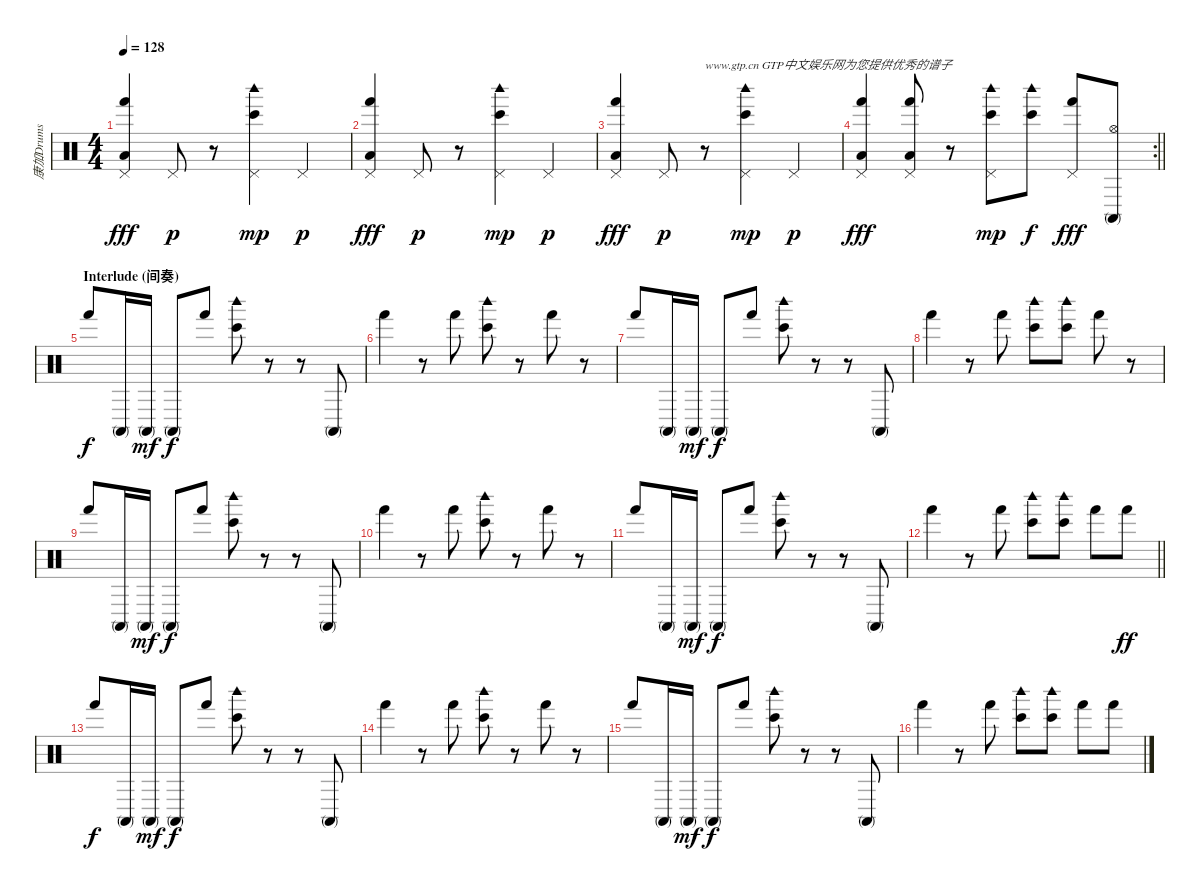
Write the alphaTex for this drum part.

\track ("康加Drums" "康加Drums") {instrument percussion}
\staff {score}
\articulation defaults
\ts (4 4)
\tempo 128
\clef neutral
\ks c
("Pedal Hi-Hat (hit)" "Hand (hit)" "Low Floor Tom (hit)").4{dy fff} "Pedal Hi-Hat (hit)".8{dy p} r.8 ("Bongo High (hit)" "Woodblock high (hit)" "Pedal Hi-Hat (hit)").4{dy mp} "Pedal Hi-Hat (hit)".4{dy p} |
("Pedal Hi-Hat (hit)" "Hand (hit)" "Low Floor Tom (hit)").4{dy fff} "Pedal Hi-Hat (hit)".8{dy p} r.8 ("Bongo High (hit)" "Woodblock high (hit)" "Pedal Hi-Hat (hit)").4{dy mp} "Pedal Hi-Hat (hit)".4{dy p} |
("Pedal Hi-Hat (hit)" "Hand (hit)" "Low Floor Tom (hit)").4{dy fff} "Pedal Hi-Hat (hit)".8{dy p} r.8{txt "www.gtp.cn GTP中文娱乐网为您提供优秀的谱子"} ("Bongo High (hit)" "Woodblock high (hit)" "Pedal Hi-Hat (hit)").4{dy mp} "Pedal Hi-Hat (hit)".4{dy p} |
\rc 2
\barLineRight lightlight
("Pedal Hi-Hat (hit)" "Hand (hit)" "Low Floor Tom (hit)").4{dy fff} ("Pedal Hi-Hat (hit)" "Hand (hit)" "Low Floor Tom (hit)").8 r.8 ("Bongo High (hit)" "Woodblock high (hit)" "Pedal Hi-Hat (hit)").8{dy mp} ("Bongo High (hit)" "Woodblock high (hit)").8{dy f} ("Pedal Hi-Hat (hit)" "Hand (hit)").8{dy fff} ("Hi-Hat (open)" "Conga high (mute)").8 |
\section ("" "Interlude (间奏)")
"Hand (hit)".8{dy f} "Conga high (mute)".16 "Conga high (mute)".16{dy mf} "Conga high (mute)".8{dy f} "Hand (hit)".8 ("Bongo High (hit)" "Woodblock high (hit)").8 r.8 r.8 "Conga high (mute)".8 |
"Hand (hit)".4 r.8 "Hand (hit)".8 ("Bongo High (hit)" "Woodblock high (hit)").8 r.8 "Hand (hit)".8 r.8 |
"Hand (hit)".8 "Conga high (mute)".16 "Conga high (mute)".16{dy mf} "Conga high (mute)".8{dy f} "Hand (hit)".8 ("Bongo High (hit)" "Woodblock high (hit)").8 r.8 r.8 "Conga high (mute)".8 |
"Hand (hit)".4 r.8 "Hand (hit)".8 ("Bongo High (hit)" "Woodblock high (hit)").8 ("Bongo High (hit)" "Woodblock high (hit)").8 "Hand (hit)".8 r.8 |
"Hand (hit)".8 "Conga high (mute)".16 "Conga high (mute)".16{dy mf} "Conga high (mute)".8{dy f} "Hand (hit)".8 ("Bongo High (hit)" "Woodblock high (hit)").8 r.8 r.8 "Conga high (mute)".8 |
"Hand (hit)".4 r.8 "Hand (hit)".8 ("Bongo High (hit)" "Woodblock high (hit)").8 r.8 "Hand (hit)".8 r.8 |
"Hand (hit)".8 "Conga high (mute)".16 "Conga high (mute)".16{dy mf} "Conga high (mute)".8{dy f} "Hand (hit)".8 ("Bongo High (hit)" "Woodblock high (hit)").8 r.8 r.8 "Conga high (mute)".8 |
\barLineRight lightlight "Hand (hit)".4
r.8 "Hand (hit)".8 ("Bongo High (hit)" "Woodblock high (hit)").8 ("Bongo High (hit)" "Woodblock high (hit)").8 "Hand (hit)".8 "Hand (hit)".8{dy ff} |
"Hand (hit)".8{dy f} "Conga high (mute)".16 "Conga high (mute)".16{dy mf} "Conga high (mute)".8{dy f} "Hand (hit)".8 ("Bongo High (hit)" "Woodblock high (hit)").8 r.8 r.8 "Conga high (mute)".8 |
"Hand (hit)".4 r.8 "Hand (hit)".8 ("Bongo High (hit)" "Woodblock high (hit)").8 r.8 "Hand (hit)".8 r.8 |
"Hand (hit)".8 "Conga high (mute)".16 "Conga high (mute)".16{dy mf} "Conga high (mute)".8{dy f} "Hand (hit)".8 ("Bongo High (hit)" "Woodblock high (hit)").8 r.8 r.8 "Conga high (mute)".8 |
"Hand (hit)".4 r.8 "Hand (hit)".8 ("Bongo High (hit)" "Woodblock high (hit)").8 ("Bongo High (hit)" "Woodblock high (hit)").8 "Hand (hit)".8 "Hand (hit)".8
